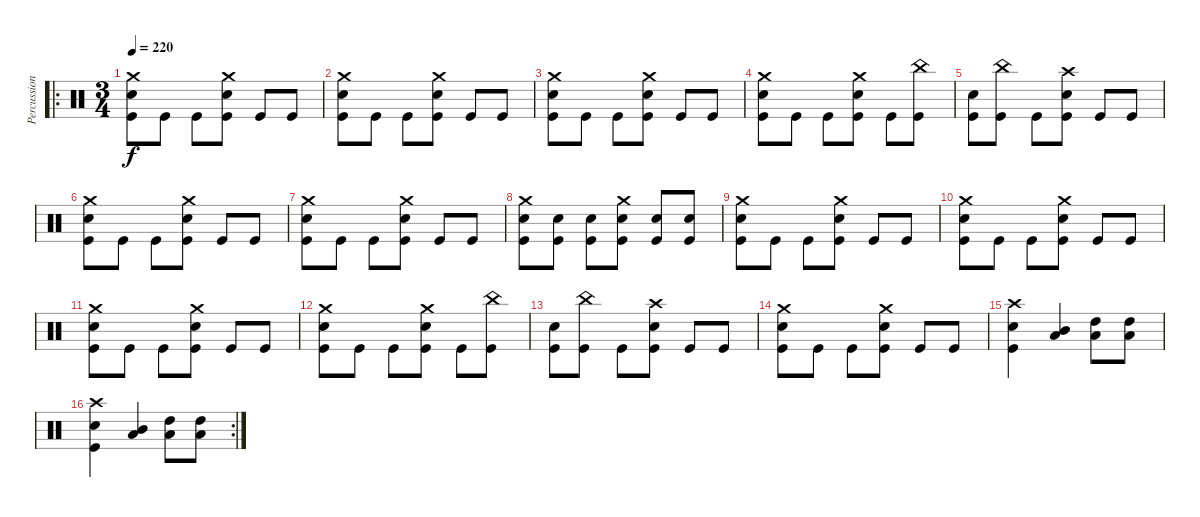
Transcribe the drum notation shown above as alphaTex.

\track ("Percussion" "Percussion") {instrument percussion}
\staff {score}
\articulation defaults
\ro
\ts (3 4)
\tempo 220
\clef neutral
\ks c
("Crash medium (hit)" "Electric Snare (hit)" "Kick (hit)").8{dy f} "Kick (hit)".8 "Kick (hit)".8 ("Crash medium (hit)" "Electric Snare (hit)" "Kick (hit)").8 "Kick (hit)".8 "Kick (hit)".8 |
("Crash medium (hit)" "Electric Snare (hit)" "Kick (hit)").8 "Kick (hit)".8 "Kick (hit)".8 ("Crash medium (hit)" "Electric Snare (hit)" "Kick (hit)").8 "Kick (hit)".8 "Kick (hit)".8 |
("Crash medium (hit)" "Electric Snare (hit)" "Kick (hit)").8 "Kick (hit)".8 "Kick (hit)".8 ("Crash medium (hit)" "Electric Snare (hit)" "Kick (hit)").8 "Kick (hit)".8 "Kick (hit)".8 |
("Crash medium (hit)" "Electric Snare (hit)" "Kick (hit)").8 "Kick (hit)".8 "Kick (hit)".8 ("Crash medium (hit)" "Electric Snare (hit)" "Kick (hit)").8 "Kick (hit)".8 ("China (hit)" "Kick (hit)").8 |
("Electric Snare (hit)" "Kick (hit)").8 ("China (hit)" "Kick (hit)").8 "Kick (hit)".8 ("Crash high (hit)" "Electric Snare (hit)" "Kick (hit)").8 "Kick (hit)".8 "Kick (hit)".8 |
("Crash medium (hit)" "Electric Snare (hit)" "Kick (hit)").8 "Kick (hit)".8 "Kick (hit)".8 ("Crash medium (hit)" "Electric Snare (hit)" "Kick (hit)").8 "Kick (hit)".8 "Kick (hit)".8 |
("Crash medium (hit)" "Electric Snare (hit)" "Kick (hit)").8 "Kick (hit)".8 "Kick (hit)".8 ("Crash medium (hit)" "Electric Snare (hit)" "Kick (hit)").8 "Kick (hit)".8 "Kick (hit)".8 |
("Crash medium (hit)" "Electric Snare (hit)" "Kick (hit)").8 ("Electric Snare (hit)" "Kick (hit)").8 ("Electric Snare (hit)" "Kick (hit)").8 ("Crash medium (hit)" "Electric Snare (hit)" "Kick (hit)").8 ("Electric Snare (hit)" "Kick (hit)").8 ("Electric Snare (hit)" "Kick (hit)").8 |
("Crash medium (hit)" "Electric Snare (hit)" "Kick (hit)").8 "Kick (hit)".8 "Kick (hit)".8 ("Crash medium (hit)" "Electric Snare (hit)" "Kick (hit)").8 "Kick (hit)".8 "Kick (hit)".8 |
("Crash medium (hit)" "Electric Snare (hit)" "Kick (hit)").8 "Kick (hit)".8 "Kick (hit)".8 ("Crash medium (hit)" "Electric Snare (hit)" "Kick (hit)").8 "Kick (hit)".8 "Kick (hit)".8 |
("Crash medium (hit)" "Electric Snare (hit)" "Kick (hit)").8 "Kick (hit)".8 "Kick (hit)".8 ("Crash medium (hit)" "Electric Snare (hit)" "Kick (hit)").8 "Kick (hit)".8 "Kick (hit)".8 |
("Crash medium (hit)" "Electric Snare (hit)" "Kick (hit)").8 "Kick (hit)".8 "Kick (hit)".8 ("Crash medium (hit)" "Electric Snare (hit)" "Kick (hit)").8 "Kick (hit)".8 ("China (hit)" "Kick (hit)").8 |
("Electric Snare (hit)" "Kick (hit)").8 ("China (hit)" "Kick (hit)").8 "Kick (hit)".8 ("Crash high (hit)" "Electric Snare (hit)" "Kick (hit)").8 "Kick (hit)".8 "Kick (hit)".8 |
("Crash medium (hit)" "Electric Snare (hit)" "Kick (hit)").8 "Kick (hit)".8 "Kick (hit)".8 ("Crash medium (hit)" "Electric Snare (hit)" "Kick (hit)").8 "Kick (hit)".8 "Kick (hit)".8 |
("Crash high (hit)" "Electric Snare (hit)" "Kick (hit)").4 ("Mid Tom (hit)" "Low Floor Tom (hit)").4 ("High Tom (hit)" "Low Floor Tom (hit)").8 ("High Tom (hit)" "Low Floor Tom (hit)").8 |
\rc 2
("Crash high (hit)" "Electric Snare (hit)" "Kick (hit)").4 ("Mid Tom (hit)" "Low Floor Tom (hit)").4 ("High Tom (hit)" "Low Floor Tom (hit)").8 ("High Tom (hit)" "Low Floor Tom (hit)").8
